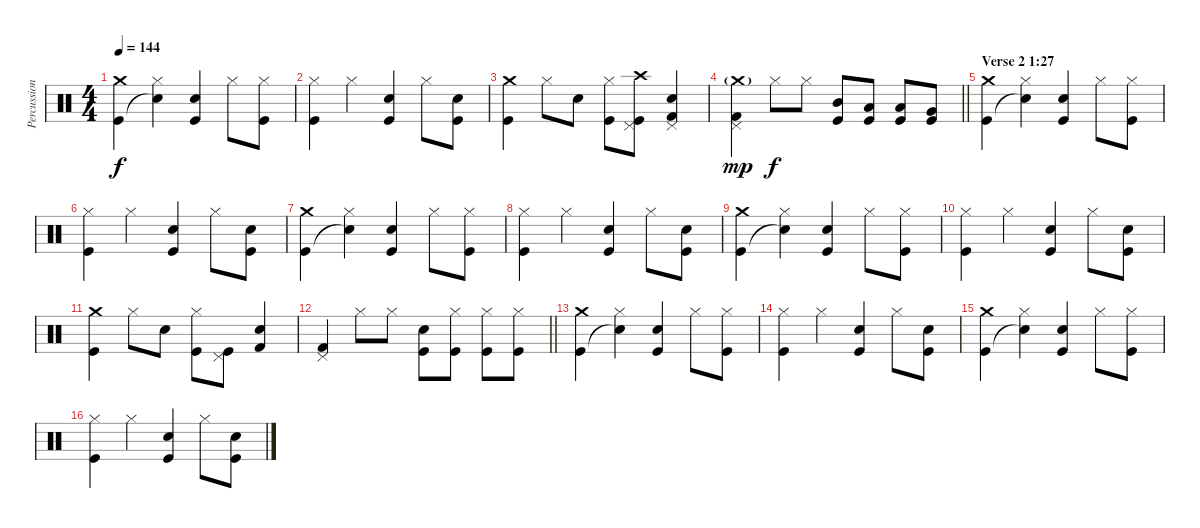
\track ("Percussion" "Percussion") {instrument percussion}
\staff {score}
\articulation defaults
\ts (4 4)
\tempo 144
\clef neutral
\ks c
("Crash medium (hit)" "Kick (hit)").4{dy f} ("Hi-Hat (closed)" "Snare (hit)"{t}).4 ("Electric Snare (hit)" "Kick (hit)").4 "Hi-Hat (closed)".8 ("Hi-Hat (closed)" "Kick (hit)").8 |
("Hi-Hat (closed)" "Kick (hit)").4 "Hi-Hat (closed)".4 ("Electric Snare (hit)" "Kick (hit)").4 "Hi-Hat (closed)".8 ("Electric Snare (hit)" "Kick (hit)").8 |
("Crash medium (hit)" "Kick (hit)").4 "Hi-Hat (closed)".8 "Electric Snare (hit)".8 ("Hi-Hat (closed)" "Kick (hit)").8 ("Crash high (hit)" "Pedal Hi-Hat (hit)" "Kick (hit)").8 ("Electric Snare (hit)" "Pedal Hi-Hat (hit)" "Kick (hit) 2").4 |
\barLineRight lightlight
("Crash medium (hit)"{g} "Pedal Hi-Hat (hit)" "Kick (hit) 2").4{dy mp} "Hi-Hat (closed)".8{dy f} "Hi-Hat (closed)".8 ("Mid Tom (hit)" "Kick (hit)").8 ("Low Tom (hit)" "Kick (hit)").8 ("Low Tom (hit)" "Kick (hit)").8 ("Very Low Tom (hit)" "Kick (hit)").8 |
\section ("" "Verse 2 1:27")
("Crash medium (hit)" "Kick (hit)").4 ("Hi-Hat (closed)" "Snare (hit)"{t}).4 ("Electric Snare (hit)" "Kick (hit)").4 "Hi-Hat (closed)".8 ("Hi-Hat (closed)" "Kick (hit)").8 |
("Hi-Hat (closed)" "Kick (hit)").4 "Hi-Hat (closed)".4 ("Electric Snare (hit)" "Kick (hit)").4 "Hi-Hat (closed)".8 ("Electric Snare (hit)" "Kick (hit)").8 |
("Crash medium (hit)" "Kick (hit)").4 ("Hi-Hat (closed)" "Snare (hit)"{t}).4 ("Electric Snare (hit)" "Kick (hit)").4 "Hi-Hat (closed)".8 ("Hi-Hat (closed)" "Kick (hit)").8 |
("Hi-Hat (closed)" "Kick (hit)").4 "Hi-Hat (closed)".4 ("Electric Snare (hit)" "Kick (hit)").4 "Hi-Hat (closed)".8 ("Electric Snare (hit)" "Kick (hit)").8 |
("Crash medium (hit)" "Kick (hit)").4 ("Hi-Hat (closed)" "Snare (hit)"{t}).4 ("Electric Snare (hit)" "Kick (hit)").4 "Hi-Hat (closed)".8 ("Hi-Hat (closed)" "Kick (hit)").8 |
("Hi-Hat (closed)" "Kick (hit)").4 "Hi-Hat (closed)".4 ("Electric Snare (hit)" "Kick (hit)").4 "Hi-Hat (closed)".8 ("Electric Snare (hit)" "Kick (hit)").8 |
("Crash medium (hit)" "Kick (hit)").4 "Hi-Hat (closed)".8 "Electric Snare (hit)".8 ("Hi-Hat (closed)" "Kick (hit)").8 ("Pedal Hi-Hat (hit)" "Kick (hit)").8 ("Electric Snare (hit)" "Kick (hit) 2").4 |
\barLineRight lightlight
("Pedal Hi-Hat (hit)" "Kick (hit) 2").4 "Hi-Hat (closed)".8 "Hi-Hat (closed)".8 ("Electric Snare (hit)" "Kick (hit)").8 ("Hi-Hat (closed)" "Kick (hit)").8 ("Hi-Hat (closed)" "Kick (hit)").8 ("Hi-Hat (closed)" "Kick (hit)").8 |
("Crash medium (hit)" "Kick (hit)").4 ("Hi-Hat (closed)" "Snare (hit)"{t}).4 ("Electric Snare (hit)" "Kick (hit)").4 "Hi-Hat (closed)".8 ("Hi-Hat (closed)" "Kick (hit)").8 |
("Hi-Hat (closed)" "Kick (hit)").4 "Hi-Hat (closed)".4 ("Electric Snare (hit)" "Kick (hit)").4 "Hi-Hat (closed)".8 ("Electric Snare (hit)" "Kick (hit)").8 |
("Crash medium (hit)" "Kick (hit)").4 ("Hi-Hat (closed)" "Snare (hit)"{t}).4 ("Electric Snare (hit)" "Kick (hit)").4 "Hi-Hat (closed)".8 ("Hi-Hat (closed)" "Kick (hit)").8 |
("Hi-Hat (closed)" "Kick (hit)").4 "Hi-Hat (closed)".4 ("Electric Snare (hit)" "Kick (hit)").4 "Hi-Hat (closed)".8 ("Electric Snare (hit)" "Kick (hit)").8
